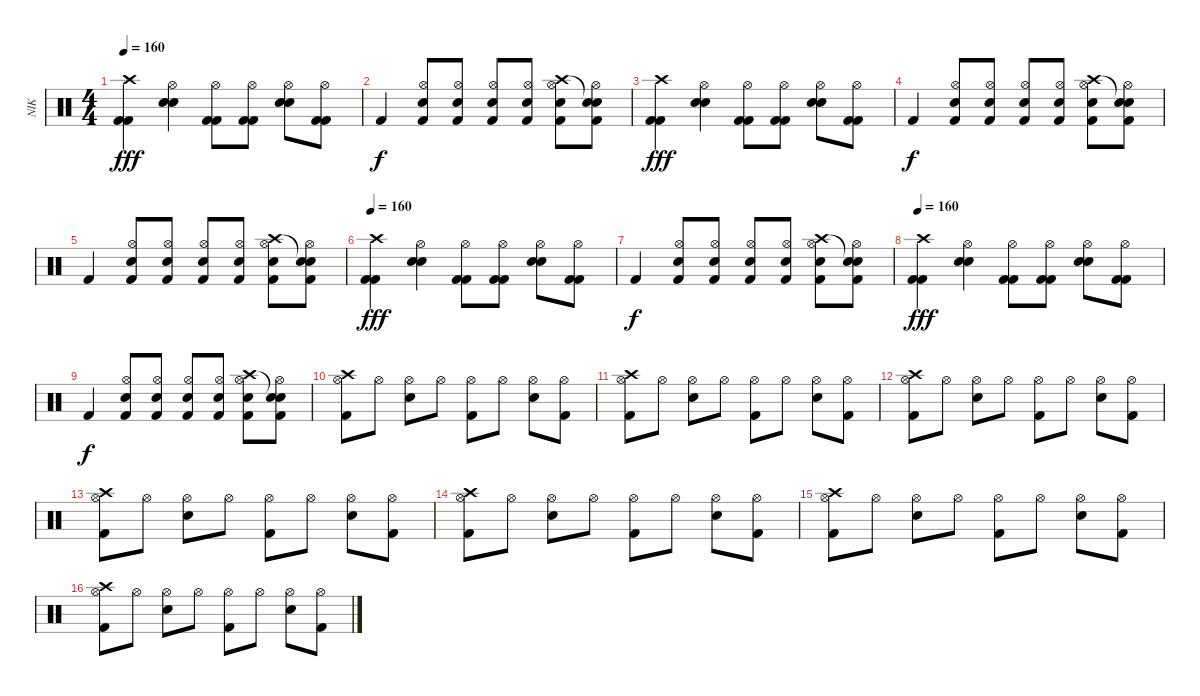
\track ("NIK" "NIK") {instrument percussion}
\staff {score}
\articulation defaults
\ts (4 4)
\tempo 160
\clef neutral
\ks c
("Crash high (hit)" "Kick (hit) 2" "Kick (hit) 2").4{dy fff} ("Hi-Hat (open)" "Electric Snare (hit)" "Electric Snare (hit)").4 ("Hi-Hat (open)" "Kick (hit) 2" "Kick (hit) 2").8 ("Hi-Hat (open)" "Kick (hit) 2" "Kick (hit) 2").8 ("Hi-Hat (open)" "Electric Snare (hit)" "Electric Snare (hit)").8 ("Hi-Hat (open)" "Kick (hit) 2" "Kick (hit) 2").8 |
"Kick (hit) 2".4{dy f} ("Electric Snare (hit)" "Hi-Hat (open)" "Kick (hit) 2").8 ("Electric Snare (hit)" "Hi-Hat (open)" "Kick (hit) 2").8 ("Electric Snare (hit)" "Hi-Hat (open)" "Kick (hit) 2").8 ("Electric Snare (hit)" "Hi-Hat (open)" "Kick (hit) 2").8 ("Electric Snare (hit)" "Hi-Hat (open)" "Kick (hit) 2" "Crash high (hit)").8 ("Electric Snare (hit)" "Hi-Hat (open)" "Kick (hit) 2" "Snare (hit)"{t}).8 |
("Crash high (hit)" "Kick (hit) 2" "Kick (hit) 2").4{dy fff} ("Hi-Hat (open)" "Electric Snare (hit)" "Electric Snare (hit)").4 ("Hi-Hat (open)" "Kick (hit) 2" "Kick (hit) 2").8 ("Hi-Hat (open)" "Kick (hit) 2" "Kick (hit) 2").8 ("Hi-Hat (open)" "Electric Snare (hit)" "Electric Snare (hit)").8 ("Hi-Hat (open)" "Kick (hit) 2" "Kick (hit) 2").8 |
"Kick (hit) 2".4{dy f} ("Electric Snare (hit)" "Hi-Hat (open)" "Kick (hit) 2").8 ("Electric Snare (hit)" "Hi-Hat (open)" "Kick (hit) 2").8 ("Electric Snare (hit)" "Hi-Hat (open)" "Kick (hit) 2").8 ("Electric Snare (hit)" "Hi-Hat (open)" "Kick (hit) 2").8 ("Electric Snare (hit)" "Hi-Hat (open)" "Kick (hit) 2" "Crash high (hit)").8 ("Electric Snare (hit)" "Hi-Hat (open)" "Kick (hit) 2" "Snare (hit)"{t}).8 |
"Kick (hit) 2".4 ("Electric Snare (hit)" "Hi-Hat (open)" "Kick (hit) 2").8 ("Electric Snare (hit)" "Hi-Hat (open)" "Kick (hit) 2").8 ("Electric Snare (hit)" "Hi-Hat (open)" "Kick (hit) 2").8 ("Electric Snare (hit)" "Hi-Hat (open)" "Kick (hit) 2").8 ("Electric Snare (hit)" "Hi-Hat (open)" "Kick (hit) 2" "Crash high (hit)").8 ("Electric Snare (hit)" "Hi-Hat (open)" "Kick (hit) 2" "Snare (hit)"{t}).8 |
\tempo 160
("Crash high (hit)" "Kick (hit) 2" "Kick (hit) 2").4{dy fff} ("Hi-Hat (open)" "Electric Snare (hit)" "Electric Snare (hit)").4 ("Hi-Hat (open)" "Kick (hit) 2" "Kick (hit) 2").8 ("Hi-Hat (open)" "Kick (hit) 2" "Kick (hit) 2").8 ("Hi-Hat (open)" "Electric Snare (hit)" "Electric Snare (hit)").8 ("Hi-Hat (open)" "Kick (hit) 2" "Kick (hit) 2").8 |
"Kick (hit) 2".4{dy f} ("Electric Snare (hit)" "Hi-Hat (open)" "Kick (hit) 2").8 ("Electric Snare (hit)" "Hi-Hat (open)" "Kick (hit) 2").8 ("Electric Snare (hit)" "Hi-Hat (open)" "Kick (hit) 2").8 ("Electric Snare (hit)" "Hi-Hat (open)" "Kick (hit) 2").8 ("Electric Snare (hit)" "Hi-Hat (open)" "Kick (hit) 2" "Crash high (hit)").8 ("Electric Snare (hit)" "Hi-Hat (open)" "Kick (hit) 2" "Snare (hit)"{t}).8 |
\tempo 160
("Crash high (hit)" "Kick (hit) 2" "Kick (hit) 2").4{dy fff} ("Hi-Hat (open)" "Electric Snare (hit)" "Electric Snare (hit)").4 ("Hi-Hat (open)" "Kick (hit) 2" "Kick (hit) 2").8 ("Hi-Hat (open)" "Kick (hit) 2" "Kick (hit) 2").8 ("Hi-Hat (open)" "Electric Snare (hit)" "Electric Snare (hit)").8 ("Hi-Hat (open)" "Kick (hit) 2" "Kick (hit) 2").8 |
"Kick (hit) 2".4{dy f} ("Electric Snare (hit)" "Hi-Hat (open)" "Kick (hit) 2").8 ("Electric Snare (hit)" "Hi-Hat (open)" "Kick (hit) 2").8 ("Electric Snare (hit)" "Hi-Hat (open)" "Kick (hit) 2").8 ("Electric Snare (hit)" "Hi-Hat (open)" "Kick (hit) 2").8 ("Electric Snare (hit)" "Hi-Hat (open)" "Kick (hit) 2" "Crash high (hit)").8 ("Electric Snare (hit)" "Hi-Hat (open)" "Kick (hit) 2" "Snare (hit)"{t}).8 |
("Crash high (hit)" "Hi-Hat (open)" "Kick (hit) 2").8 "Hi-Hat (open)".8 ("Hi-Hat (open)" "Electric Snare (hit)").8 "Hi-Hat (open)".8 ("Hi-Hat (open)" "Kick (hit) 2").8 "Hi-Hat (open)".8 ("Hi-Hat (open)" "Electric Snare (hit)").8 ("Hi-Hat (open)" "Kick (hit) 2").8 |
("Crash high (hit)" "Hi-Hat (open)" "Kick (hit) 2").8 "Hi-Hat (open)".8 ("Hi-Hat (open)" "Electric Snare (hit)").8 "Hi-Hat (open)".8 ("Hi-Hat (open)" "Kick (hit) 2").8 "Hi-Hat (open)".8 ("Hi-Hat (open)" "Electric Snare (hit)").8 ("Hi-Hat (open)" "Kick (hit) 2").8 |
("Crash high (hit)" "Hi-Hat (open)" "Kick (hit) 2").8 "Hi-Hat (open)".8 ("Hi-Hat (open)" "Electric Snare (hit)").8 "Hi-Hat (open)".8 ("Hi-Hat (open)" "Kick (hit) 2").8 "Hi-Hat (open)".8 ("Hi-Hat (open)" "Electric Snare (hit)").8 ("Hi-Hat (open)" "Kick (hit) 2").8 |
("Crash high (hit)" "Hi-Hat (open)" "Kick (hit) 2").8 "Hi-Hat (open)".8 ("Hi-Hat (open)" "Electric Snare (hit)").8 "Hi-Hat (open)".8 ("Hi-Hat (open)" "Kick (hit) 2").8 "Hi-Hat (open)".8 ("Hi-Hat (open)" "Electric Snare (hit)").8 ("Hi-Hat (open)" "Kick (hit) 2").8 |
("Crash high (hit)" "Hi-Hat (open)" "Kick (hit) 2").8 "Hi-Hat (open)".8 ("Hi-Hat (open)" "Electric Snare (hit)").8 "Hi-Hat (open)".8 ("Hi-Hat (open)" "Kick (hit) 2").8 "Hi-Hat (open)".8 ("Hi-Hat (open)" "Electric Snare (hit)").8 ("Hi-Hat (open)" "Kick (hit) 2").8 |
("Crash high (hit)" "Hi-Hat (open)" "Kick (hit) 2").8 "Hi-Hat (open)".8 ("Hi-Hat (open)" "Electric Snare (hit)").8 "Hi-Hat (open)".8 ("Hi-Hat (open)" "Kick (hit) 2").8 "Hi-Hat (open)".8 ("Hi-Hat (open)" "Electric Snare (hit)").8 ("Hi-Hat (open)" "Kick (hit) 2").8 |
("Crash high (hit)" "Hi-Hat (open)" "Kick (hit) 2").8 "Hi-Hat (open)".8 ("Hi-Hat (open)" "Electric Snare (hit)").8 "Hi-Hat (open)".8 ("Hi-Hat (open)" "Kick (hit) 2").8 "Hi-Hat (open)".8 ("Hi-Hat (open)" "Electric Snare (hit)").8 ("Hi-Hat (open)" "Kick (hit) 2").8
